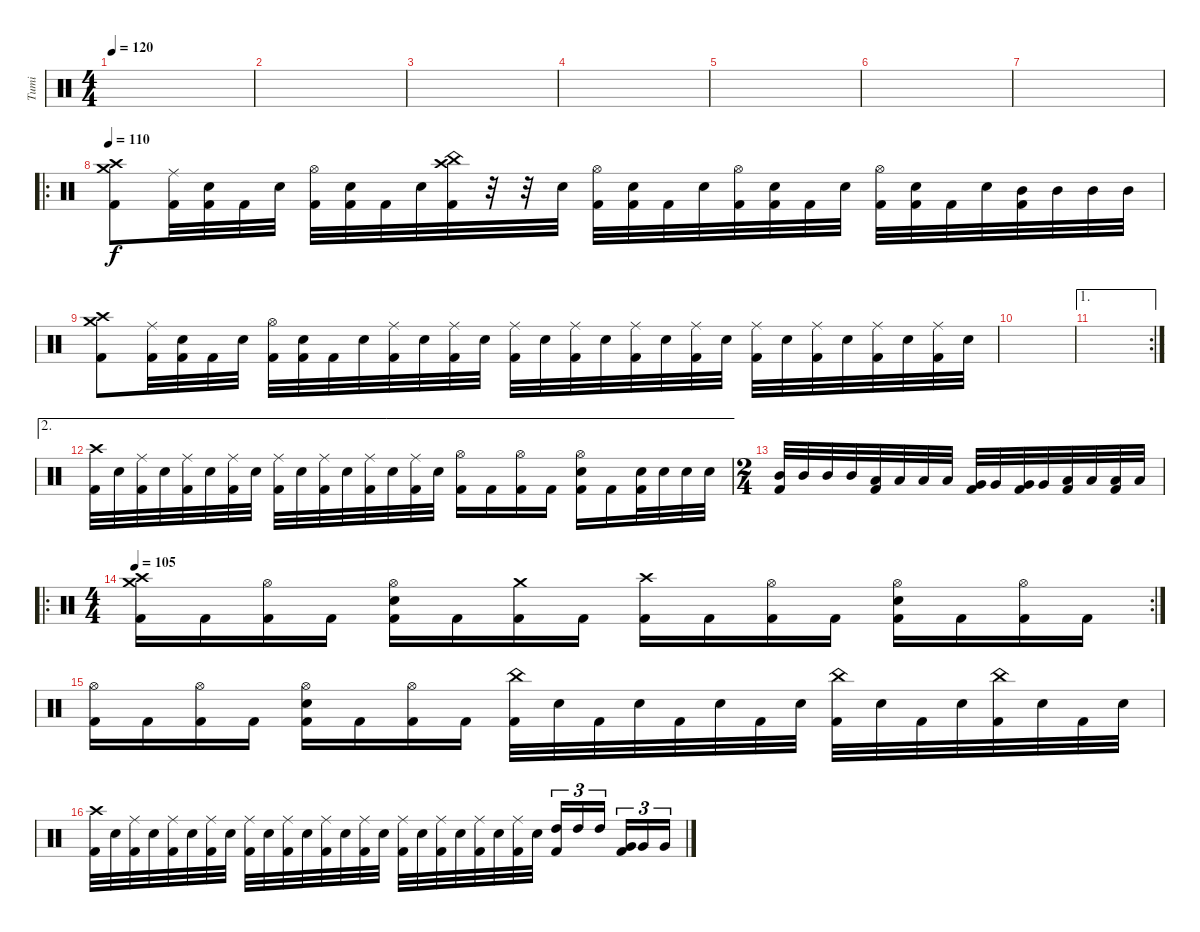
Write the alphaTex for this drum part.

\track ("Tumi" "Tumi") {instrument percussion}
\staff {score}
\articulation defaults
\ts (4 4)
\tempo 120
\clef neutral
\ks c
|
|
|
|
|
|
|
\ro
\tempo 110
("Crash medium (hit)" "Crash high (hit)" "Kick (hit) 2").8 ("Ride (middle)" "Kick (hit) 2").32 ("Electric Snare (hit)" "Kick (hit) 2").32 "Kick (hit) 2".32 "Electric Snare (hit)".32 ("Hi-Hat (open)" "Kick (hit) 2").32 ("Electric Snare (hit)" "Kick (hit) 2").32 "Kick (hit) 2".32 "Electric Snare (hit)".32 ("China (hit)" "Crash high (hit)" "Kick (hit) 2").32 r.32 r.32 "Electric Snare (hit)".32 ("Hi-Hat (open)" "Kick (hit) 2").32 ("Electric Snare (hit)" "Kick (hit) 2").32 "Kick (hit) 2".32 "Electric Snare (hit)".32 ("Hi-Hat (open)" "Kick (hit) 2").32 ("Electric Snare (hit)" "Kick (hit) 2").32 "Kick (hit) 2".32 "Electric Snare (hit)".32 ("Hi-Hat (open)" "Kick (hit) 2").32 ("Electric Snare (hit)" "Kick (hit) 2").32 "Kick (hit) 2".32 "Electric Snare (hit)".32 ("Mid Tom (hit)" "Kick (hit) 2").32 "Mid Tom (hit)".32 "Mid Tom (hit)".32 "Mid Tom (hit)".32 |
("Crash medium (hit)" "Crash high (hit)" "Kick (hit) 2").8 ("Ride (middle)" "Kick (hit) 2").32 ("Electric Snare (hit)" "Kick (hit) 2").32 "Kick (hit) 2".32 "Electric Snare (hit)".32 ("Hi-Hat (open)" "Kick (hit) 2").32 ("Electric Snare (hit)" "Kick (hit) 2").32 "Kick (hit) 2".32 "Electric Snare (hit)".32 ("Ride (middle)" "Kick (hit) 2").32 "Electric Snare (hit)".32 ("Ride (middle)" "Kick (hit) 2").32 "Electric Snare (hit)".32 ("Ride (middle)" "Kick (hit) 2").32 "Electric Snare (hit)".32 ("Ride (middle)" "Kick (hit) 2").32 "Electric Snare (hit)".32 ("Ride (middle)" "Kick (hit) 2").32 "Electric Snare (hit)".32 ("Ride (middle)" "Kick (hit) 2").32 "Electric Snare (hit)".32 ("Ride (middle)" "Kick (hit) 2").32 "Electric Snare (hit)".32 ("Ride (middle)" "Kick (hit) 2").32 "Electric Snare (hit)".32 ("Ride (middle)" "Kick (hit) 2").32 "Electric Snare (hit)".32 ("Ride (middle)" "Kick (hit) 2").32 "Electric Snare (hit)".32 |
|
\ae 1
\rc 2
|
\ae 2
("Crash high (hit)" "Kick (hit) 2").32 "Electric Snare (hit)".32 ("Ride (middle)" "Kick (hit) 2").32 "Electric Snare (hit)".32 ("Ride (middle)" "Kick (hit) 2").32 "Electric Snare (hit)".32 ("Ride (middle)" "Kick (hit) 2").32 "Electric Snare (hit)".32 ("Ride (middle)" "Kick (hit) 2").32 "Electric Snare (hit)".32 ("Ride (middle)" "Kick (hit) 2").32 "Electric Snare (hit)".32 ("Ride (middle)" "Kick (hit) 2").32 "Electric Snare (hit)".32 ("Ride (middle)" "Kick (hit) 2").32 "Electric Snare (hit)".32 ("Hi-Hat (open)" "Kick (hit) 2").16 "Kick (hit) 2".16 ("Hi-Hat (open)" "Kick (hit) 2").16 "Kick (hit) 2".16 ("Hi-Hat (open)" "Electric Snare (hit)" "Kick (hit) 2").16 "Kick (hit) 2".16 ("Electric Snare (hit)" "Kick (hit) 2").32 "Electric Snare (hit)".32 "Electric Snare (hit)".32 "Electric Snare (hit)".32 |
\ts (2 4)
("Mid Tom (hit)" "Kick (hit) 2").32 "Mid Tom (hit)".32 "Mid Tom (hit)".32 "Mid Tom (hit)".32 ("Low Tom (hit)" "Kick (hit) 2").32 "Low Tom (hit)".32 "Low Tom (hit)".32 "Low Tom (hit)".32 ("Very Low Tom (hit)" "Kick (hit) 2").32 "Very Low Tom (hit)".32 ("Very Low Tom (hit)" "Kick (hit) 2").32 "Very Low Tom (hit)".32 ("Low Floor Tom (hit)" "Kick (hit) 2").32 "Low Floor Tom (hit)".32 ("Low Floor Tom (hit)" "Kick (hit) 2").32 "Low Floor Tom (hit)".32 |
\ro
\rc 2
\ts (4 4)
\tempo 105
("Crash medium (hit)" "Crash high (hit)" "Kick (hit) 2").16 "Kick (hit) 2".16 ("Hi-Hat (open)" "Kick (hit) 2").16 "Kick (hit) 2".16 ("Hi-Hat (open)" "Electric Snare (hit)" "Kick (hit) 2").16 "Kick (hit) 2".16 ("Crash medium (hit)" "Kick (hit) 2").16 "Kick (hit) 2".16 ("Crash high (hit)" "Kick (hit) 2").16 "Kick (hit) 2".16 ("Hi-Hat (open)" "Kick (hit) 2").16 "Kick (hit) 2".16 ("Hi-Hat (open)" "Electric Snare (hit)" "Kick (hit) 2").16 "Kick (hit) 2".16 ("Hi-Hat (open)" "Kick (hit) 2").16 "Kick (hit) 2".16 |
("Hi-Hat (open)" "Kick (hit) 2").16 "Kick (hit) 2".16 ("Hi-Hat (open)" "Kick (hit) 2").16 "Kick (hit) 2".16 ("Hi-Hat (open)" "Electric Snare (hit)" "Kick (hit) 2").16 "Kick (hit) 2".16 ("Hi-Hat (open)" "Kick (hit) 2").16 "Kick (hit) 2".16 ("China (hit)" "Kick (hit) 2").32 "Electric Snare (hit)".32 "Kick (hit) 2".32 "Electric Snare (hit)".32 "Kick (hit) 2".32 "Electric Snare (hit)".32 "Kick (hit) 2".32 "Electric Snare (hit)".32 ("China (hit)" "Kick (hit) 2").32 "Electric Snare (hit)".32 "Kick (hit) 2".32 "Electric Snare (hit)".32 ("China (hit)" "Kick (hit) 2").32 "Electric Snare (hit)".32 "Kick (hit) 2".32 "Electric Snare (hit)".32 |
("Crash high (hit)" "Kick (hit) 2").32 "Electric Snare (hit)".32 ("Ride (middle)" "Kick (hit) 2").32 "Electric Snare (hit)".32 ("Ride (middle)" "Kick (hit) 2").32 "Electric Snare (hit)".32 ("Ride (middle)" "Kick (hit) 2").32 "Electric Snare (hit)".32 ("Ride (middle)" "Kick (hit) 2").32 "Electric Snare (hit)".32 ("Ride (middle)" "Kick (hit) 2").32 "Electric Snare (hit)".32 ("Ride (middle)" "Kick (hit) 2").32 "Electric Snare (hit)".32 ("Ride (middle)" "Kick (hit) 2").32 "Electric Snare (hit)".32 ("Ride (middle)" "Kick (hit) 2").32 "Electric Snare (hit)".32 ("Ride (middle)" "Kick (hit) 2").32 "Electric Snare (hit)".32 ("Ride (middle)" "Kick (hit) 2").32 "Electric Snare (hit)".32 ("Ride (middle)" "Kick (hit) 2").32 "Electric Snare (hit)".32 ("High Tom (hit)" "Kick (hit) 2").16{tu (3 2)} "High Tom (hit)".16{tu (3 2)} "High Tom (hit)".16{tu (3 2) beam splitsecondary} ("Very Low Tom (hit)" "Kick (hit) 2").16{tu (3 2)} "Very Low Tom (hit)".16{tu (3 2)} "Very Low Tom (hit)".16{tu (3 2)}
